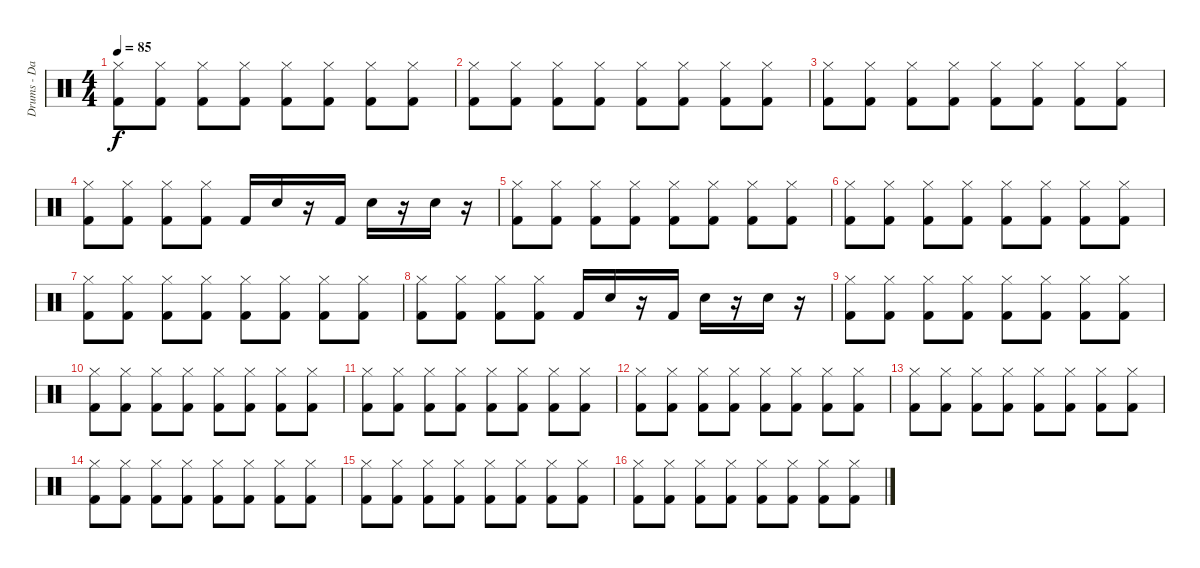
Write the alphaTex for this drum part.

\track ("Drums - Daniel Zimmermann" "Drums - Da") {instrument percussion}
\staff {score}
\articulation defaults
\ts (4 4)
\tempo 85
\clef neutral
\ks c
("Hi-Hat (closed)" "Kick (hit) 2").8{dy f} ("Hi-Hat (closed)" "Kick (hit) 2").8 ("Hi-Hat (closed)" "Kick (hit) 2").8 ("Hi-Hat (closed)" "Kick (hit) 2").8 ("Hi-Hat (closed)" "Kick (hit) 2").8 ("Hi-Hat (closed)" "Kick (hit) 2").8 ("Hi-Hat (closed)" "Kick (hit) 2").8 ("Hi-Hat (closed)" "Kick (hit) 2").8 |
("Hi-Hat (closed)" "Kick (hit) 2").8 ("Hi-Hat (closed)" "Kick (hit) 2").8 ("Hi-Hat (closed)" "Kick (hit) 2").8 ("Hi-Hat (closed)" "Kick (hit) 2").8 ("Hi-Hat (closed)" "Kick (hit) 2").8 ("Hi-Hat (closed)" "Kick (hit) 2").8 ("Hi-Hat (closed)" "Kick (hit) 2").8 ("Hi-Hat (closed)" "Kick (hit) 2").8 |
("Hi-Hat (closed)" "Kick (hit) 2").8 ("Hi-Hat (closed)" "Kick (hit) 2").8 ("Hi-Hat (closed)" "Kick (hit) 2").8 ("Hi-Hat (closed)" "Kick (hit) 2").8 ("Hi-Hat (closed)" "Kick (hit) 2").8 ("Hi-Hat (closed)" "Kick (hit) 2").8 ("Hi-Hat (closed)" "Kick (hit) 2").8 ("Hi-Hat (closed)" "Kick (hit) 2").8 |
("Hi-Hat (closed)" "Kick (hit) 2").8 ("Hi-Hat (closed)" "Kick (hit) 2").8 ("Hi-Hat (closed)" "Kick (hit) 2").8 ("Hi-Hat (closed)" "Kick (hit) 2").8 "Kick (hit) 2".16 "Snare (hit) 2".16 r.16 "Kick (hit) 2".16 "Snare (hit) 2".16 r.16 "Snare (hit) 2".16 r.16 |
("Hi-Hat (closed)" "Kick (hit) 2").8 ("Hi-Hat (closed)" "Kick (hit) 2").8 ("Hi-Hat (closed)" "Kick (hit) 2").8 ("Hi-Hat (closed)" "Kick (hit) 2").8 ("Hi-Hat (closed)" "Kick (hit) 2").8 ("Hi-Hat (closed)" "Kick (hit) 2").8 ("Hi-Hat (closed)" "Kick (hit) 2").8 ("Hi-Hat (closed)" "Kick (hit) 2").8 |
("Hi-Hat (closed)" "Kick (hit) 2").8 ("Hi-Hat (closed)" "Kick (hit) 2").8 ("Hi-Hat (closed)" "Kick (hit) 2").8 ("Hi-Hat (closed)" "Kick (hit) 2").8 ("Hi-Hat (closed)" "Kick (hit) 2").8 ("Hi-Hat (closed)" "Kick (hit) 2").8 ("Hi-Hat (closed)" "Kick (hit) 2").8 ("Hi-Hat (closed)" "Kick (hit) 2").8 |
("Hi-Hat (closed)" "Kick (hit) 2").8 ("Hi-Hat (closed)" "Kick (hit) 2").8 ("Hi-Hat (closed)" "Kick (hit) 2").8 ("Hi-Hat (closed)" "Kick (hit) 2").8 ("Hi-Hat (closed)" "Kick (hit) 2").8 ("Hi-Hat (closed)" "Kick (hit) 2").8 ("Hi-Hat (closed)" "Kick (hit) 2").8 ("Hi-Hat (closed)" "Kick (hit) 2").8 |
("Hi-Hat (closed)" "Kick (hit) 2").8 ("Hi-Hat (closed)" "Kick (hit) 2").8 ("Hi-Hat (closed)" "Kick (hit) 2").8 ("Hi-Hat (closed)" "Kick (hit) 2").8 "Kick (hit) 2".16 "Snare (hit) 2".16 r.16 "Kick (hit) 2".16 "Snare (hit) 2".16 r.16 "Snare (hit) 2".16 r.16 |
("Hi-Hat (closed)" "Kick (hit) 2").8 ("Hi-Hat (closed)" "Kick (hit) 2").8 ("Hi-Hat (closed)" "Kick (hit) 2").8 ("Hi-Hat (closed)" "Kick (hit) 2").8 ("Hi-Hat (closed)" "Kick (hit) 2").8 ("Hi-Hat (closed)" "Kick (hit) 2").8 ("Hi-Hat (closed)" "Kick (hit) 2").8 ("Hi-Hat (closed)" "Kick (hit) 2").8 |
("Hi-Hat (closed)" "Kick (hit) 2").8 ("Hi-Hat (closed)" "Kick (hit) 2").8 ("Hi-Hat (closed)" "Kick (hit) 2").8 ("Hi-Hat (closed)" "Kick (hit) 2").8 ("Hi-Hat (closed)" "Kick (hit) 2").8 ("Hi-Hat (closed)" "Kick (hit) 2").8 ("Hi-Hat (closed)" "Kick (hit) 2").8 ("Hi-Hat (closed)" "Kick (hit) 2").8 |
("Hi-Hat (closed)" "Kick (hit) 2").8 ("Hi-Hat (closed)" "Kick (hit) 2").8 ("Hi-Hat (closed)" "Kick (hit) 2").8 ("Hi-Hat (closed)" "Kick (hit) 2").8 ("Hi-Hat (closed)" "Kick (hit) 2").8 ("Hi-Hat (closed)" "Kick (hit) 2").8 ("Hi-Hat (closed)" "Kick (hit) 2").8 ("Hi-Hat (closed)" "Kick (hit) 2").8 |
("Hi-Hat (closed)" "Kick (hit) 2").8 ("Hi-Hat (closed)" "Kick (hit) 2").8 ("Hi-Hat (closed)" "Kick (hit) 2").8 ("Hi-Hat (closed)" "Kick (hit) 2").8 ("Hi-Hat (closed)" "Kick (hit) 2").8 ("Hi-Hat (closed)" "Kick (hit) 2").8 ("Hi-Hat (closed)" "Kick (hit) 2").8 ("Hi-Hat (closed)" "Kick (hit) 2").8 |
("Hi-Hat (closed)" "Kick (hit) 2").8 ("Hi-Hat (closed)" "Kick (hit) 2").8 ("Hi-Hat (closed)" "Kick (hit) 2").8 ("Hi-Hat (closed)" "Kick (hit) 2").8 ("Hi-Hat (closed)" "Kick (hit) 2").8 ("Hi-Hat (closed)" "Kick (hit) 2").8 ("Hi-Hat (closed)" "Kick (hit) 2").8 ("Hi-Hat (closed)" "Kick (hit) 2").8 |
("Hi-Hat (closed)" "Kick (hit) 2").8 ("Hi-Hat (closed)" "Kick (hit) 2").8 ("Hi-Hat (closed)" "Kick (hit) 2").8 ("Hi-Hat (closed)" "Kick (hit) 2").8 ("Hi-Hat (closed)" "Kick (hit) 2").8 ("Hi-Hat (closed)" "Kick (hit) 2").8 ("Hi-Hat (closed)" "Kick (hit) 2").8 ("Hi-Hat (closed)" "Kick (hit) 2").8 |
("Hi-Hat (closed)" "Kick (hit) 2").8 ("Hi-Hat (closed)" "Kick (hit) 2").8 ("Hi-Hat (closed)" "Kick (hit) 2").8 ("Hi-Hat (closed)" "Kick (hit) 2").8 ("Hi-Hat (closed)" "Kick (hit) 2").8 ("Hi-Hat (closed)" "Kick (hit) 2").8 ("Hi-Hat (closed)" "Kick (hit) 2").8 ("Hi-Hat (closed)" "Kick (hit) 2").8 |
("Hi-Hat (closed)" "Kick (hit) 2").8 ("Hi-Hat (closed)" "Kick (hit) 2").8 ("Hi-Hat (closed)" "Kick (hit) 2").8 ("Hi-Hat (closed)" "Kick (hit) 2").8 ("Hi-Hat (closed)" "Kick (hit) 2").8 ("Hi-Hat (closed)" "Kick (hit) 2").8 ("Hi-Hat (closed)" "Kick (hit) 2").8 ("Hi-Hat (closed)" "Kick (hit) 2").8
